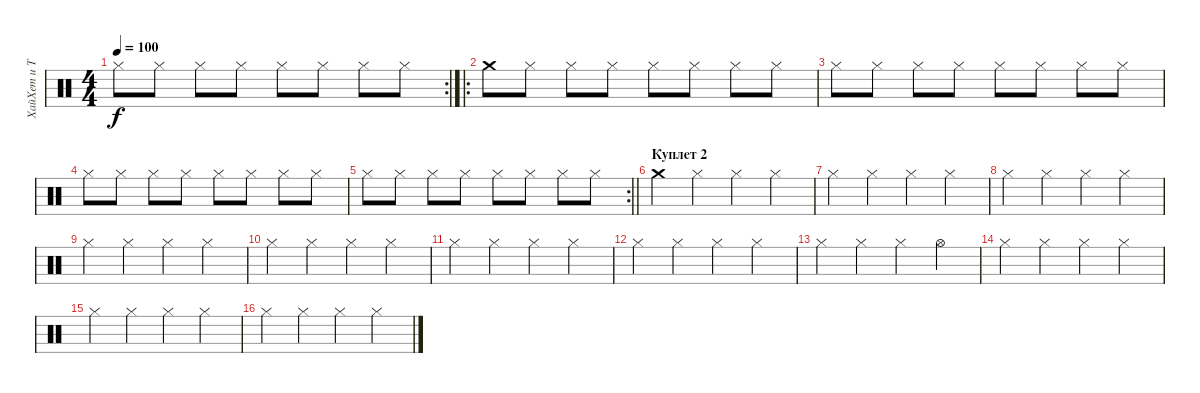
\track ("ХайХет и Тарелка" "ХайХет и Т") {instrument percussion}
\staff {score}
\articulation defaults
\rc 2
\ts (4 4)
\tempo 100
\clef neutral
\ks c "Hi-Hat (closed)".8{dy f} "Hi-Hat (closed)".8 "Hi-Hat (closed)".8 "Hi-Hat (closed)".8 "Hi-Hat (closed)".8 "Hi-Hat (closed)".8 "Hi-Hat (closed)".8 "Hi-Hat (closed)".8
|
\ro "Crash medium (hit)".8 "Hi-Hat (closed)".8 "Hi-Hat (closed)".8 "Hi-Hat (closed)".8 "Hi-Hat (closed)".8 "Hi-Hat (closed)".8 "Hi-Hat (closed)".8 "Hi-Hat (closed)".8
|
"Hi-Hat (closed)".8 "Hi-Hat (closed)".8 "Hi-Hat (closed)".8 "Hi-Hat (closed)".8 "Hi-Hat (closed)".8 "Hi-Hat (closed)".8 "Hi-Hat (closed)".8 "Hi-Hat (closed)".8 |
"Hi-Hat (closed)".8 "Hi-Hat (closed)".8 "Hi-Hat (closed)".8 "Hi-Hat (closed)".8 "Hi-Hat (closed)".8 "Hi-Hat (closed)".8 "Hi-Hat (closed)".8 "Hi-Hat (closed)".8 |
\rc 2
\barLineRight lightlight "Hi-Hat (closed)".8 "Hi-Hat (closed)".8 "Hi-Hat (closed)".8 "Hi-Hat (closed)".8 "Hi-Hat (closed)".8 "Hi-Hat (closed)".8 "Hi-Hat (closed)".8 "Hi-Hat (closed)".8
|
\section ("" "Куплет 2")
"Crash medium (hit)".4 "Hi-Hat (closed)".4 "Hi-Hat (closed)".4 "Hi-Hat (closed)".4 |
"Hi-Hat (closed)".4 "Hi-Hat (closed)".4 "Hi-Hat (closed)".4 "Hi-Hat (closed)".4 |
"Hi-Hat (closed)".4 "Hi-Hat (closed)".4 "Hi-Hat (closed)".4 "Hi-Hat (closed)".4 |
"Hi-Hat (closed)".4 "Hi-Hat (closed)".4 "Hi-Hat (closed)".4 "Hi-Hat (closed)".4 |
"Hi-Hat (closed)".4 "Hi-Hat (closed)".4 "Hi-Hat (closed)".4 "Hi-Hat (closed)".4 |
"Hi-Hat (closed)".4 "Hi-Hat (closed)".4 "Hi-Hat (closed)".4 "Hi-Hat (closed)".4 |
"Hi-Hat (closed)".4 "Hi-Hat (closed)".4 "Hi-Hat (closed)".4 "Hi-Hat (closed)".4 |
"Hi-Hat (closed)".4 "Hi-Hat (closed)".4 "Hi-Hat (closed)".4 "Hi-Hat (open)".4 |
"Hi-Hat (closed)".4 "Hi-Hat (closed)".4 "Hi-Hat (closed)".4 "Hi-Hat (closed)".4 |
"Hi-Hat (closed)".4 "Hi-Hat (closed)".4 "Hi-Hat (closed)".4 "Hi-Hat (closed)".4 |
"Hi-Hat (closed)".4 "Hi-Hat (closed)".4 "Hi-Hat (closed)".4 "Hi-Hat (closed)".4
